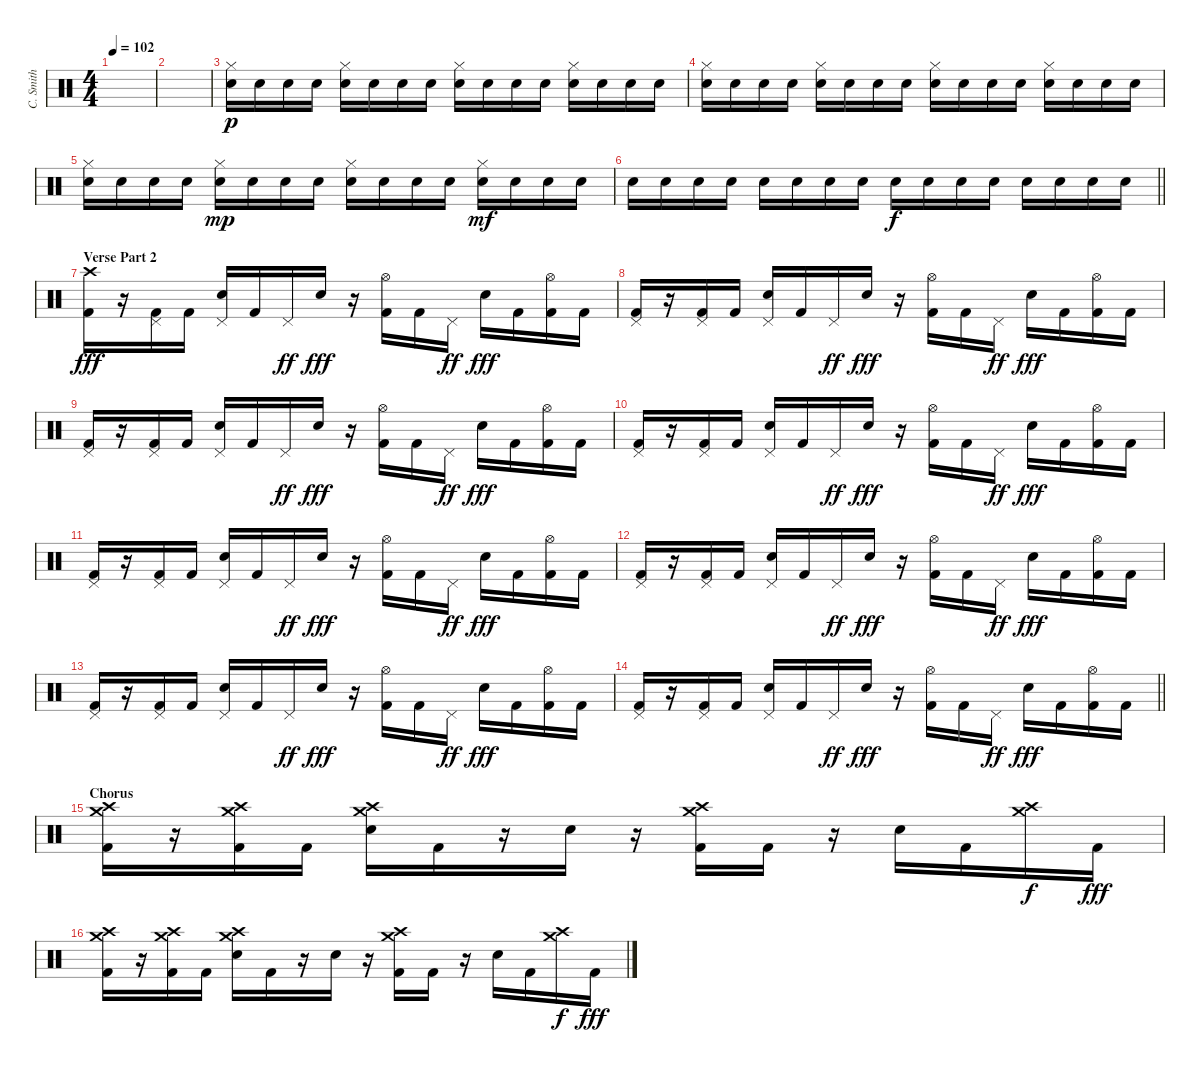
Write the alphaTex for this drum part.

\track ("C. Smith" "C. Smith") {instrument percussion}
\staff {score}
\articulation defaults
\ts (4 4)
\tempo 102
\clef neutral
\ks c
|
|
("Hi-Hat (closed)" "Snare (hit) 2").16{dy p} "Snare (hit) 2".16 "Snare (hit) 2".16 "Snare (hit) 2".16 ("Hi-Hat (closed)" "Snare (hit) 2").16 "Snare (hit) 2".16 "Snare (hit) 2".16 "Snare (hit) 2".16 ("Hi-Hat (closed)" "Snare (hit) 2").16 "Snare (hit) 2".16 "Snare (hit) 2".16 "Snare (hit) 2".16 ("Hi-Hat (closed)" "Snare (hit) 2").16 "Snare (hit) 2".16 "Snare (hit) 2".16 "Snare (hit) 2".16 |
("Hi-Hat (closed)" "Snare (hit) 2").16 "Snare (hit) 2".16 "Snare (hit) 2".16 "Snare (hit) 2".16 ("Hi-Hat (closed)" "Snare (hit) 2").16 "Snare (hit) 2".16 "Snare (hit) 2".16 "Snare (hit) 2".16 ("Hi-Hat (closed)" "Snare (hit) 2").16 "Snare (hit) 2".16 "Snare (hit) 2".16 "Snare (hit) 2".16 ("Hi-Hat (closed)" "Snare (hit) 2").16 "Snare (hit) 2".16 "Snare (hit) 2".16 "Snare (hit) 2".16 |
("Hi-Hat (closed)" "Snare (hit) 2").16 "Snare (hit) 2".16 "Snare (hit) 2".16 "Snare (hit) 2".16 ("Hi-Hat (closed)" "Snare (hit) 2").16{dy mp} "Snare (hit) 2".16 "Snare (hit) 2".16 "Snare (hit) 2".16 ("Hi-Hat (closed)" "Snare (hit) 2").16 "Snare (hit) 2".16 "Snare (hit) 2".16 "Snare (hit) 2".16 ("Hi-Hat (closed)" "Snare (hit) 2").16{dy mf} "Snare (hit) 2".16 "Snare (hit) 2".16 "Snare (hit) 2".16 |
\barLineRight lightlight "Snare (hit) 2".16 "Snare (hit) 2".16 "Snare (hit) 2".16 "Snare (hit) 2".16 "Snare (hit) 2".16 "Snare (hit) 2".16 "Snare (hit) 2".16 "Snare (hit) 2".16 "Snare (hit) 2".16{dy f} "Snare (hit) 2".16 "Snare (hit) 2".16 "Snare (hit) 2".16 "Snare (hit) 2".16 "Snare (hit) 2".16 "Snare (hit) 2".16 "Snare (hit) 2".16
|
\section ("" "Verse Part 2")
("Crash high (hit)" "Kick (hit) 2").16{dy fff} r.16 ("Pedal Hi-Hat (hit)" "Kick (hit) 2").16 "Kick (hit) 2".16 ("Pedal Hi-Hat (hit)" "Snare (hit) 2").16 "Kick (hit) 2".16 "Pedal Hi-Hat (hit)".16{dy ff} "Snare (hit) 2".16{dy fff} r.16 ("Hi-Hat (open)" "Kick (hit) 2").16 "Kick (hit) 2".16 "Pedal Hi-Hat (hit)".16{dy ff} "Snare (hit) 2".16{dy fff} "Kick (hit) 2".16 ("Hi-Hat (open)" "Kick (hit) 2").16 "Kick (hit) 2".16 |
("Pedal Hi-Hat (hit)" "Kick (hit) 2").16 r.16 ("Pedal Hi-Hat (hit)" "Kick (hit) 2").16 "Kick (hit) 2".16 ("Pedal Hi-Hat (hit)" "Snare (hit) 2").16 "Kick (hit) 2".16 "Pedal Hi-Hat (hit)".16{dy ff} "Snare (hit) 2".16{dy fff} r.16 ("Hi-Hat (open)" "Kick (hit) 2").16 "Kick (hit) 2".16 "Pedal Hi-Hat (hit)".16{dy ff} "Snare (hit) 2".16{dy fff} "Kick (hit) 2".16 ("Hi-Hat (open)" "Kick (hit) 2").16 "Kick (hit) 2".16 |
("Pedal Hi-Hat (hit)" "Kick (hit) 2").16 r.16 ("Pedal Hi-Hat (hit)" "Kick (hit) 2").16 "Kick (hit) 2".16 ("Pedal Hi-Hat (hit)" "Snare (hit) 2").16 "Kick (hit) 2".16 "Pedal Hi-Hat (hit)".16{dy ff} "Snare (hit) 2".16{dy fff} r.16 ("Hi-Hat (open)" "Kick (hit) 2").16 "Kick (hit) 2".16 "Pedal Hi-Hat (hit)".16{dy ff} "Snare (hit) 2".16{dy fff} "Kick (hit) 2".16 ("Hi-Hat (open)" "Kick (hit) 2").16 "Kick (hit) 2".16 |
("Pedal Hi-Hat (hit)" "Kick (hit) 2").16 r.16 ("Pedal Hi-Hat (hit)" "Kick (hit) 2").16 "Kick (hit) 2".16 ("Pedal Hi-Hat (hit)" "Snare (hit) 2").16 "Kick (hit) 2".16 "Pedal Hi-Hat (hit)".16{dy ff} "Snare (hit) 2".16{dy fff} r.16 ("Hi-Hat (open)" "Kick (hit) 2").16 "Kick (hit) 2".16 "Pedal Hi-Hat (hit)".16{dy ff} "Snare (hit) 2".16{dy fff} "Kick (hit) 2".16 ("Hi-Hat (open)" "Kick (hit) 2").16 "Kick (hit) 2".16 |
("Pedal Hi-Hat (hit)" "Kick (hit) 2").16 r.16 ("Pedal Hi-Hat (hit)" "Kick (hit) 2").16 "Kick (hit) 2".16 ("Pedal Hi-Hat (hit)" "Snare (hit) 2").16 "Kick (hit) 2".16 "Pedal Hi-Hat (hit)".16{dy ff} "Snare (hit) 2".16{dy fff} r.16 ("Hi-Hat (open)" "Kick (hit) 2").16 "Kick (hit) 2".16 "Pedal Hi-Hat (hit)".16{dy ff} "Snare (hit) 2".16{dy fff} "Kick (hit) 2".16 ("Hi-Hat (open)" "Kick (hit) 2").16 "Kick (hit) 2".16 |
("Pedal Hi-Hat (hit)" "Kick (hit) 2").16 r.16 ("Pedal Hi-Hat (hit)" "Kick (hit) 2").16 "Kick (hit) 2".16 ("Pedal Hi-Hat (hit)" "Snare (hit) 2").16 "Kick (hit) 2".16 "Pedal Hi-Hat (hit)".16{dy ff} "Snare (hit) 2".16{dy fff} r.16 ("Hi-Hat (open)" "Kick (hit) 2").16 "Kick (hit) 2".16 "Pedal Hi-Hat (hit)".16{dy ff} "Snare (hit) 2".16{dy fff} "Kick (hit) 2".16 ("Hi-Hat (open)" "Kick (hit) 2").16 "Kick (hit) 2".16 |
("Pedal Hi-Hat (hit)" "Kick (hit) 2").16 r.16 ("Pedal Hi-Hat (hit)" "Kick (hit) 2").16 "Kick (hit) 2".16 ("Pedal Hi-Hat (hit)" "Snare (hit) 2").16 "Kick (hit) 2".16 "Pedal Hi-Hat (hit)".16{dy ff} "Snare (hit) 2".16{dy fff} r.16 ("Hi-Hat (open)" "Kick (hit) 2").16 "Kick (hit) 2".16 "Pedal Hi-Hat (hit)".16{dy ff} "Snare (hit) 2".16{dy fff} "Kick (hit) 2".16 ("Hi-Hat (open)" "Kick (hit) 2").16 "Kick (hit) 2".16 |
\barLineRight lightlight
("Pedal Hi-Hat (hit)" "Kick (hit) 2").16 r.16 ("Pedal Hi-Hat (hit)" "Kick (hit) 2").16 "Kick (hit) 2".16 ("Pedal Hi-Hat (hit)" "Snare (hit) 2").16 "Kick (hit) 2".16 "Pedal Hi-Hat (hit)".16{dy ff} "Snare (hit) 2".16{dy fff} r.16 ("Hi-Hat (open)" "Kick (hit) 2").16 "Kick (hit) 2".16 "Pedal Hi-Hat (hit)".16{dy ff} "Snare (hit) 2".16{dy fff} "Kick (hit) 2".16 ("Hi-Hat (open)" "Kick (hit) 2").16 "Kick (hit) 2".16 |
\section ("" "Chorus")
("Crash medium (hit)" "Crash high (hit)" "Kick (hit) 2").16{volume 11} r.16 ("Crash medium (hit)" "Crash high (hit)" "Kick (hit) 2").16 "Kick (hit) 2".16 ("Crash medium (hit)" "Crash high (hit)" "Snare (hit) 2").16 "Kick (hit) 2".16 r.16 "Snare (hit) 2".16 r.16 ("Crash medium (hit)" "Crash high (hit)" "Kick (hit) 2").16 "Kick (hit) 2".16 r.16 "Snare (hit) 2".16 "Kick (hit) 2".16 ("Crash medium (hit)" "Crash high (hit)").16{dy f} "Kick (hit) 2".16{dy fff} |
("Crash medium (hit)" "Crash high (hit)" "Kick (hit) 2").16 r.16 ("Crash medium (hit)" "Crash high (hit)" "Kick (hit) 2").16 "Kick (hit) 2".16 ("Crash medium (hit)" "Crash high (hit)" "Snare (hit) 2").16 "Kick (hit) 2".16 r.16 "Snare (hit) 2".16 r.16 ("Crash medium (hit)" "Crash high (hit)" "Kick (hit) 2").16 "Kick (hit) 2".16 r.16 "Snare (hit) 2".16 "Kick (hit) 2".16 ("Crash medium (hit)" "Crash high (hit)").16{dy f} "Kick (hit) 2".16{dy fff}
